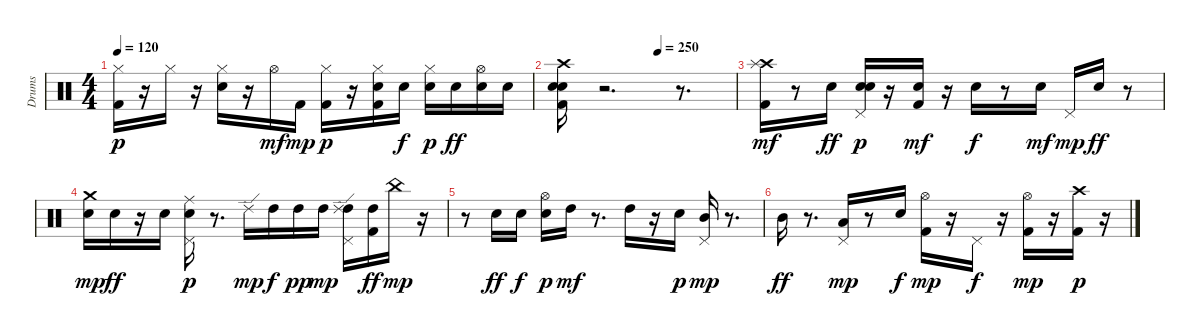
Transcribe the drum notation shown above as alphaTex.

\track ("Drums" "Drums") {instrument percussion}
\staff {score}
\articulation defaults
\ts (4 4)
\tempo 120
\clef neutral
\ks c
("Kick (hit) 2" "Hi-Hat (closed)").16{dy p} r.16 "Hi-Hat (closed)".16 r.16 ("Electric Snare (hit)" "Hi-Hat (closed)").16 r.16 "Hi-Hat (open)".16{dy mf} "Kick (hit) 2".16{dy mp} ("Kick (hit) 2" "Hi-Hat (closed)").16{dy p} r.16 ("Kick (hit) 2" "Electric Snare (hit)" "Hi-Hat (closed)").16 "Electric Snare (hit)".16{dy f} ("Electric Snare (hit)" "Hi-Hat (closed)").16{dy p} "Electric Snare (hit)".16{dy ff} ("Electric Snare (hit)" "Hi-Hat (open)").16 "Electric Snare (hit)".16 |
\tempo (250 0.5625)
("Kick (hit) 2" "Electric Snare (hit)" "Crash high (hit)" "Electric Snare (hit)").16 r.2{d} r.8{d} |
("Kick (hit) 2" "Crash high (hit)" "Splash (hit)").16{dy mf} r.8 "Electric Snare (hit)".16{dy ff volume 14 balance 8} ("Electric Snare (hit)" "Pedal Hi-Hat (hit)" "Electric Snare (hit)").16{dy p} r.16 ("Kick (hit) 2" "Electric Snare (hit)").16{dy mf} r.16 "Electric Snare (hit)".16{dy f} r.8 "Electric Snare (hit)".16{dy mf} "Pedal Hi-Hat (hit)".16{dy mp} "Electric Snare (hit)".16{dy ff} r.8 |
("Electric Snare (hit)" "Crash medium (hit)").16{dy mp} "Electric Snare (hit)".16{dy ff} r.16 "Electric Snare (hit)".16 ("Pedal Hi-Hat (hit)" "Electric Snare (hit)" "Ride (middle)").16{dy p} r.8{d} "Ride (edge) 2".16{dy mp} "High Tom (hit)".16{dy f} "High Tom (hit)".16{dy pp} "High Tom (hit)".16{dy mp} ("Pedal Hi-Hat (hit)" "High Tom (hit)" "Ride (edge) 2").16 ("High Tom (hit)" "Kick (hit) 2").16{dy ff} "China (hit)".16{dy mp} r.16 |
r.8 "Electric Snare (hit)".16{dy ff} "Electric Snare (hit)".16{dy f} ("Electric Snare (hit)" "Hi-Hat (open)").16{dy p} "High Tom (hit)".16{dy mf} r.8{d} "High Tom (hit)".16 r.16 "Electric Snare (hit)".16{dy p} ("Pedal Hi-Hat (hit)" "Mid Tom (hit)").16{dy mp} r.8{d} |
"Mid Tom (hit)".16{dy ff} r.8{d} ("Pedal Hi-Hat (hit)" "Low Tom (hit)").16{dy mp} r.8 "Electric Snare (hit)".16{dy f} ("Kick (hit) 2" "Hi-Hat (open)").16{dy mp} r.16 "Pedal Hi-Hat (hit)".16{dy f} r.16 ("Kick (hit) 2" "Hi-Hat (open)").16{dy mp} r.16 ("Kick (hit) 2" "Crash high (hit)").16{dy p} r.16
